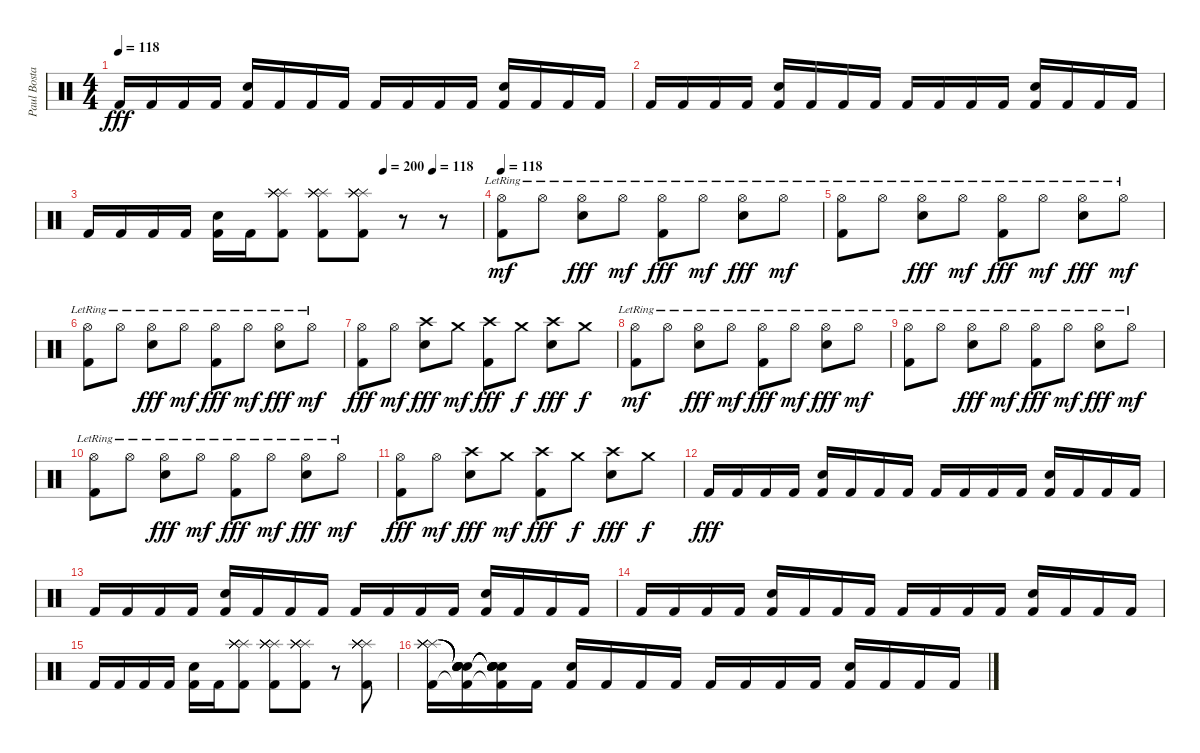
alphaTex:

\track ("Paul Bostaph" "Paul Bosta") {instrument percussion}
\staff {score}
\articulation defaults
\ts (4 4)
\tempo 118
\clef neutral
\ks c "Kick (hit) 2".16{dy fff} "Kick (hit) 2".16 "Kick (hit) 2".16 "Kick (hit) 2".16
("Snare (hit) 2" "Kick (hit) 2").16 "Kick (hit) 2".16 "Kick (hit) 2".16 "Kick (hit) 2".16 "Kick (hit) 2".16 "Kick (hit) 2".16 "Kick (hit) 2".16 "Kick (hit) 2".16 ("Snare (hit) 2" "Kick (hit) 2").16 "Kick (hit) 2".16 "Kick (hit) 2".16 "Kick (hit) 2".16 |
"Kick (hit) 2".16 "Kick (hit) 2".16 "Kick (hit) 2".16 "Kick (hit) 2".16 ("Snare (hit) 2" "Kick (hit) 2").16 "Kick (hit) 2".16 "Kick (hit) 2".16 "Kick (hit) 2".16 "Kick (hit) 2".16 "Kick (hit) 2".16 "Kick (hit) 2".16 "Kick (hit) 2".16 ("Snare (hit) 2" "Kick (hit) 2").16 "Kick (hit) 2".16 "Kick (hit) 2".16 "Kick (hit) 2".16 |
\tempo (200 0.75)
\tempo (118 0.875)
"Kick (hit) 2".16 "Kick (hit) 2".16 "Kick (hit) 2".16 "Kick (hit) 2".16 ("Snare (hit) 2" "Kick (hit) 2").16 "Kick (hit) 2".16 ("Splash (hit)" "Splash (hit)" "Splash (hit)" "Splash (hit)" "Splash (hit)" "Kick (hit) 2").8 ("Splash (hit)" "Splash (hit)" "Splash (hit)" "Splash (hit)" "Splash (hit)" "Kick (hit) 2").8 ("Splash (hit)" "Splash (hit)" "Splash (hit)" "Splash (hit)" "Splash (hit)" "Kick (hit) 2").8 r.8 r.8 |
\tempo 118
("Kick (hit) 2" "Hi-Hat (open)"{lr}).8{dy mf} "Hi-Hat (open)"{lr}.8 ("Hi-Hat (open)"{lr} "Snare (hit) 2").8{dy fff} "Hi-Hat (open)"{lr}.8{dy mf} ("Hi-Hat (open)"{lr} "Kick (hit) 2").8{dy fff} "Hi-Hat (open)"{lr}.8{dy mf} ("Hi-Hat (open)"{lr} "Snare (hit) 2").8{dy fff} "Hi-Hat (open)"{lr}.8{dy mf} |
("Kick (hit) 2" "Hi-Hat (open)"{lr}).8 "Hi-Hat (open)"{lr}.8 ("Hi-Hat (open)"{lr} "Snare (hit) 2").8{dy fff} "Hi-Hat (open)"{lr}.8{dy mf} ("Hi-Hat (open)"{lr} "Kick (hit) 2").8{dy fff} "Hi-Hat (open)"{lr}.8{dy mf} ("Hi-Hat (open)"{lr} "Snare (hit) 2").8{dy fff} "Hi-Hat (open)"{lr}.8{dy mf} |
("Kick (hit) 2" "Hi-Hat (open)"{lr}).8 "Hi-Hat (open)"{lr}.8 ("Hi-Hat (open)"{lr} "Snare (hit) 2").8{dy fff} "Hi-Hat (open)"{lr}.8{dy mf} ("Hi-Hat (open)"{lr} "Kick (hit) 2").8{dy fff} "Hi-Hat (open)"{lr}.8{dy mf} ("Hi-Hat (open)"{lr} "Snare (hit) 2").8{dy fff} "Hi-Hat (open)"{lr}.8{dy mf} |
("Hi-Hat (open)" "Kick (hit) 2").8{dy fff} "Hi-Hat (open)".8{dy mf} ("Crash high (hit)" "Snare (hit) 2").8{dy fff} "Crash medium (hit)".8{dy mf} ("Crash high (hit)" "Kick (hit) 2").8{dy fff} "Crash medium (hit)".8{dy f} ("Crash high (hit)" "Snare (hit) 2").8{dy fff} "Crash medium (hit)".8{dy f} |
("Kick (hit) 2" "Hi-Hat (open)"{lr}).8{dy mf} "Hi-Hat (open)"{lr}.8 ("Hi-Hat (open)"{lr} "Snare (hit) 2").8{dy fff} "Hi-Hat (open)"{lr}.8{dy mf} ("Hi-Hat (open)"{lr} "Kick (hit) 2").8{dy fff} "Hi-Hat (open)"{lr}.8{dy mf} ("Hi-Hat (open)"{lr} "Snare (hit) 2").8{dy fff} "Hi-Hat (open)"{lr}.8{dy mf} |
("Kick (hit) 2" "Hi-Hat (open)"{lr}).8 "Hi-Hat (open)"{lr}.8 ("Hi-Hat (open)"{lr} "Snare (hit) 2").8{dy fff} "Hi-Hat (open)"{lr}.8{dy mf} ("Hi-Hat (open)"{lr} "Kick (hit) 2").8{dy fff} "Hi-Hat (open)"{lr}.8{dy mf} ("Hi-Hat (open)"{lr} "Snare (hit) 2").8{dy fff} "Hi-Hat (open)"{lr}.8{dy mf} |
("Kick (hit) 2" "Hi-Hat (open)"{lr}).8 "Hi-Hat (open)"{lr}.8 ("Hi-Hat (open)"{lr} "Snare (hit) 2").8{dy fff} "Hi-Hat (open)"{lr}.8{dy mf} ("Hi-Hat (open)"{lr} "Kick (hit) 2").8{dy fff} "Hi-Hat (open)"{lr}.8{dy mf} ("Hi-Hat (open)"{lr} "Snare (hit) 2").8{dy fff} "Hi-Hat (open)"{lr}.8{dy mf} |
("Hi-Hat (open)" "Kick (hit) 2").8{dy fff} "Hi-Hat (open)".8{dy mf} ("Crash high (hit)" "Snare (hit) 2").8{dy fff} "Crash medium (hit)".8{dy mf} ("Crash high (hit)" "Kick (hit) 2").8{dy fff} "Crash medium (hit)".8{dy f} ("Crash high (hit)" "Snare (hit) 2").8{dy fff} "Crash medium (hit)".8{dy f} |
"Kick (hit) 2".16{dy fff} "Kick (hit) 2".16 "Kick (hit) 2".16 "Kick (hit) 2".16 ("Snare (hit) 2" "Kick (hit) 2").16 "Kick (hit) 2".16 "Kick (hit) 2".16 "Kick (hit) 2".16 "Kick (hit) 2".16 "Kick (hit) 2".16 "Kick (hit) 2".16 "Kick (hit) 2".16 ("Snare (hit) 2" "Kick (hit) 2").16 "Kick (hit) 2".16 "Kick (hit) 2".16 "Kick (hit) 2".16 |
"Kick (hit) 2".16 "Kick (hit) 2".16 "Kick (hit) 2".16 "Kick (hit) 2".16 ("Snare (hit) 2" "Kick (hit) 2").16 "Kick (hit) 2".16 "Kick (hit) 2".16 "Kick (hit) 2".16 "Kick (hit) 2".16 "Kick (hit) 2".16 "Kick (hit) 2".16 "Kick (hit) 2".16 ("Snare (hit) 2" "Kick (hit) 2").16 "Kick (hit) 2".16 "Kick (hit) 2".16 "Kick (hit) 2".16 |
"Kick (hit) 2".16 "Kick (hit) 2".16 "Kick (hit) 2".16 "Kick (hit) 2".16 ("Snare (hit) 2" "Kick (hit) 2").16 "Kick (hit) 2".16 "Kick (hit) 2".16 "Kick (hit) 2".16 "Kick (hit) 2".16 "Kick (hit) 2".16 "Kick (hit) 2".16 "Kick (hit) 2".16 ("Snare (hit) 2" "Kick (hit) 2").16 "Kick (hit) 2".16 "Kick (hit) 2".16 "Kick (hit) 2".16 |
"Kick (hit) 2".16 "Kick (hit) 2".16 "Kick (hit) 2".16 "Kick (hit) 2".16 ("Snare (hit) 2" "Kick (hit) 2").16 "Kick (hit) 2".16 ("Splash (hit)" "Splash (hit)" "Splash (hit)" "Splash (hit)" "Splash (hit)" "Kick (hit) 2").8 ("Splash (hit)" "Splash (hit)" "Splash (hit)" "Splash (hit)" "Splash (hit)" "Kick (hit) 2").8 ("Splash (hit)" "Splash (hit)" "Splash (hit)" "Splash (hit)" "Splash (hit)" "Kick (hit) 2").8 r.8 ("Splash (hit)" "Splash (hit)" "Splash (hit)" "Splash (hit)" "Splash (hit)" "Kick (hit) 2").8 |
("Splash (hit)" "Splash (hit)" "Splash (hit)" "Splash (hit)" "Splash (hit)" "Kick (hit) 2").16 ("Snare (hit)"{t} "Snare (hit)"{t} "Snare (hit)"{t} "Snare (hit)"{t} "Snare (hit)"{t} "Kick (hit) 2"{t}).16 ("Snare (hit)"{t} "Snare (hit)"{t} "Snare (hit)"{t} "Snare (hit)"{t} "Snare (hit)"{t} "Kick (hit) 2"{t}).16 "Kick (hit) 2".16 ("Snare (hit) 2" "Kick (hit) 2").16 "Kick (hit) 2".16 "Kick (hit) 2".16 "Kick (hit) 2".16 "Kick (hit) 2".16 "Kick (hit) 2".16 "Kick (hit) 2".16 "Kick (hit) 2".16 ("Snare (hit) 2" "Kick (hit) 2").16 "Kick (hit) 2".16 "Kick (hit) 2".16 "Kick (hit) 2".16
